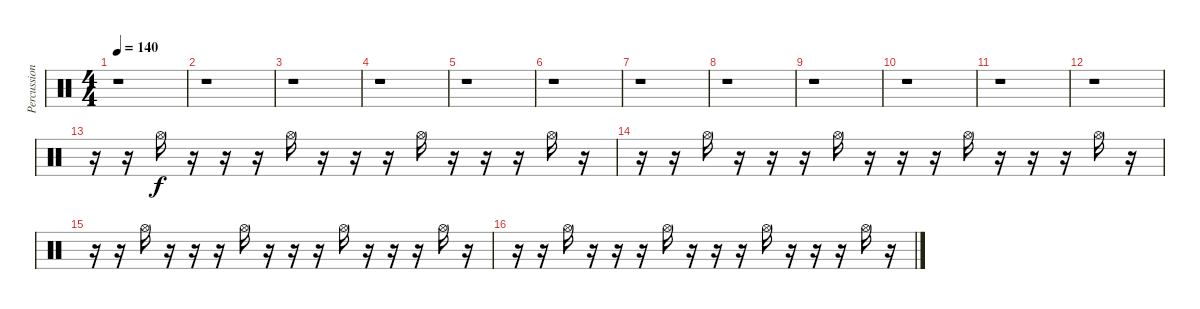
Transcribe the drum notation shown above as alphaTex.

\track ("Percussion" "Percussion") {instrument percussion}
\staff {score}
\articulation defaults
\ts (4 4)
\tempo 140
\clef neutral
\ks c
r.1{dy f} |
r.1 |
r.1 |
r.1 |
r.1 |
r.1 |
r.1 |
r.1 |
r.1 |
r.1 |
r.1 |
r.1 |
r.16 r.16 "Hi-Hat (open)".16 r.16 r.16 r.16 "Hi-Hat (open)".16 r.16 r.16 r.16 "Hi-Hat (open)".16 r.16 r.16 r.16 "Hi-Hat (open)".16 r.16 |
r.16 r.16 "Hi-Hat (open)".16 r.16 r.16 r.16 "Hi-Hat (open)".16 r.16 r.16 r.16 "Hi-Hat (open)".16 r.16 r.16 r.16 "Hi-Hat (open)".16 r.16 |
r.16 r.16 "Hi-Hat (open)".16 r.16 r.16 r.16 "Hi-Hat (open)".16 r.16 r.16 r.16 "Hi-Hat (open)".16 r.16 r.16 r.16 "Hi-Hat (open)".16 r.16 |
r.16 r.16 "Hi-Hat (open)".16 r.16 r.16 r.16 "Hi-Hat (open)".16 r.16 r.16 r.16 "Hi-Hat (open)".16 r.16 r.16 r.16 "Hi-Hat (open)".16 r.16
